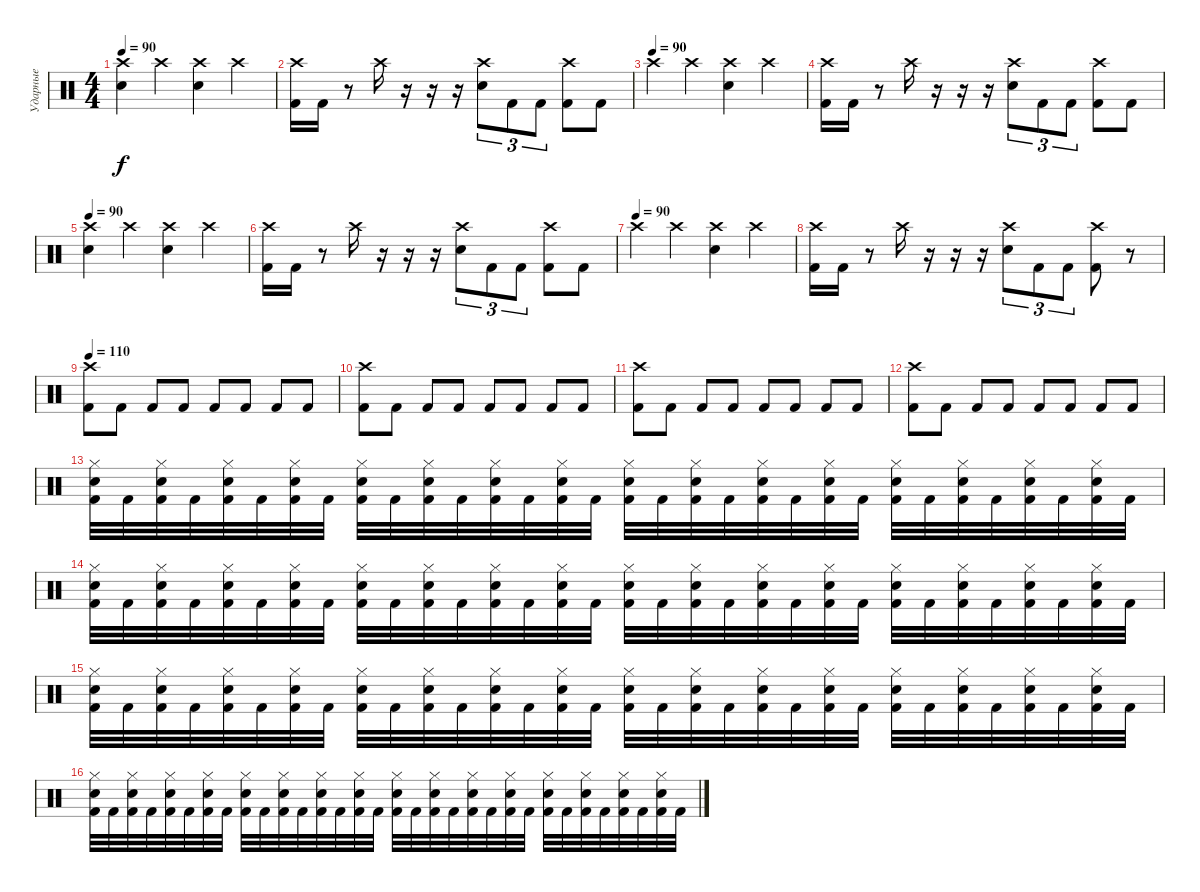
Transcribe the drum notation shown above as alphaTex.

\track ("Ударные" "Ударные") {instrument percussion}
\staff {score}
\articulation defaults
\ts (4 4)
\tempo 90
\clef neutral
\ks c
("Crash high (hit)" "Electric Snare (hit)").4{dy f} "Crash high (hit)".4 ("Crash high (hit)" "Electric Snare (hit)").4 "Crash high (hit)".4 |
("Kick (hit) 2" "Crash high (hit)").16 "Kick (hit) 2".16 r.8 "Crash high (hit)".16 r.16 r.16 r.16 ("Electric Snare (hit)" "Crash high (hit)").8{tu (3 2)} "Kick (hit) 2".8{tu (3 2)} "Kick (hit) 2".8{tu (3 2)} ("Kick (hit) 2" "Crash high (hit)").8 "Kick (hit) 2".8 |
\tempo (90)
"Crash high (hit)".4 "Crash high (hit)".4 ("Crash high (hit)" "Electric Snare (hit)").4 "Crash high (hit)".4 |
("Kick (hit) 2" "Crash high (hit)").16 "Kick (hit) 2".16 r.8 "Crash high (hit)".16 r.16 r.16 r.16 ("Electric Snare (hit)" "Crash high (hit)").8{tu (3 2)} "Kick (hit) 2".8{tu (3 2)} "Kick (hit) 2".8{tu (3 2)} ("Kick (hit) 2" "Crash high (hit)").8 "Kick (hit) 2".8 |
\tempo 90
("Crash high (hit)" "Electric Snare (hit)").4 "Crash high (hit)".4 ("Crash high (hit)" "Electric Snare (hit)").4 "Crash high (hit)".4 |
("Kick (hit) 2" "Crash high (hit)").16 "Kick (hit) 2".16 r.8 "Crash high (hit)".16 r.16 r.16 r.16 ("Electric Snare (hit)" "Crash high (hit)").8{tu (3 2)} "Kick (hit) 2".8{tu (3 2)} "Kick (hit) 2".8{tu (3 2)} ("Kick (hit) 2" "Crash high (hit)").8 "Kick (hit) 2".8 |
\tempo (90)
"Crash high (hit)".4 "Crash high (hit)".4 ("Crash high (hit)" "Electric Snare (hit)").4 "Crash high (hit)".4 |
("Kick (hit) 2" "Crash high (hit)").16 "Kick (hit) 2".16 r.8 "Crash high (hit)".16 r.16 r.16 r.16 ("Electric Snare (hit)" "Crash high (hit)").8{tu (3 2)} "Kick (hit) 2".8{tu (3 2)} "Kick (hit) 2".8{tu (3 2)} ("Kick (hit) 2" "Crash high (hit)").8 r.8 |
\tempo 110
("Crash high (hit)" "Kick (hit) 2").8 "Kick (hit) 2".8 "Kick (hit) 2".8 "Kick (hit) 2".8 "Kick (hit) 2".8 "Kick (hit) 2".8 "Kick (hit) 2".8 "Kick (hit) 2".8 |
("Crash high (hit)" "Kick (hit) 2").8 "Kick (hit) 2".8 "Kick (hit) 2".8 "Kick (hit) 2".8 "Kick (hit) 2".8 "Kick (hit) 2".8 "Kick (hit) 2".8 "Kick (hit) 2".8 |
("Crash high (hit)" "Kick (hit) 2").8 "Kick (hit) 2".8 "Kick (hit) 2".8 "Kick (hit) 2".8 "Kick (hit) 2".8 "Kick (hit) 2".8 "Kick (hit) 2".8 "Kick (hit) 2".8 |
("Crash high (hit)" "Kick (hit) 2").8 "Kick (hit) 2".8 "Kick (hit) 2".8 "Kick (hit) 2".8 "Kick (hit) 2".8 "Kick (hit) 2".8 "Kick (hit) 2".8 "Kick (hit) 2".8 |
("Kick (hit) 2" "Hi-Hat (closed)" "Electric Snare (hit)").32 "Kick (hit) 2".32 ("Kick (hit) 2" "Hi-Hat (closed)" "Electric Snare (hit)").32 "Kick (hit) 2".32 ("Kick (hit) 2" "Hi-Hat (closed)" "Electric Snare (hit)").32 "Kick (hit) 2".32 ("Kick (hit) 2" "Hi-Hat (closed)" "Electric Snare (hit)").32 "Kick (hit) 2".32 ("Kick (hit) 2" "Hi-Hat (closed)" "Electric Snare (hit)").32 "Kick (hit) 2".32 ("Kick (hit) 2" "Hi-Hat (closed)" "Electric Snare (hit)").32 "Kick (hit) 2".32 ("Kick (hit) 2" "Hi-Hat (closed)" "Electric Snare (hit)").32 "Kick (hit) 2".32 ("Kick (hit) 2" "Hi-Hat (closed)" "Electric Snare (hit)").32 "Kick (hit) 2".32 ("Kick (hit) 2" "Hi-Hat (closed)" "Electric Snare (hit)").32 "Kick (hit) 2".32 ("Kick (hit) 2" "Hi-Hat (closed)" "Electric Snare (hit)").32 "Kick (hit) 2".32 ("Kick (hit) 2" "Hi-Hat (closed)" "Electric Snare (hit)").32 "Kick (hit) 2".32 ("Kick (hit) 2" "Hi-Hat (closed)" "Electric Snare (hit)").32 "Kick (hit) 2".32 ("Kick (hit) 2" "Hi-Hat (closed)" "Electric Snare (hit)").32 "Kick (hit) 2".32 ("Kick (hit) 2" "Hi-Hat (closed)" "Electric Snare (hit)").32 "Kick (hit) 2".32 ("Kick (hit) 2" "Hi-Hat (closed)" "Electric Snare (hit)").32 "Kick (hit) 2".32 ("Kick (hit) 2" "Hi-Hat (closed)" "Electric Snare (hit)").32 "Kick (hit) 2".32 |
("Kick (hit) 2" "Hi-Hat (closed)" "Electric Snare (hit)").32 "Kick (hit) 2".32 ("Kick (hit) 2" "Hi-Hat (closed)" "Electric Snare (hit)").32 "Kick (hit) 2".32 ("Kick (hit) 2" "Hi-Hat (closed)" "Electric Snare (hit)").32 "Kick (hit) 2".32 ("Kick (hit) 2" "Hi-Hat (closed)" "Electric Snare (hit)").32 "Kick (hit) 2".32 ("Kick (hit) 2" "Hi-Hat (closed)" "Electric Snare (hit)").32 "Kick (hit) 2".32 ("Kick (hit) 2" "Hi-Hat (closed)" "Electric Snare (hit)").32 "Kick (hit) 2".32 ("Kick (hit) 2" "Hi-Hat (closed)" "Electric Snare (hit)").32 "Kick (hit) 2".32 ("Kick (hit) 2" "Hi-Hat (closed)" "Electric Snare (hit)").32 "Kick (hit) 2".32 ("Kick (hit) 2" "Hi-Hat (closed)" "Electric Snare (hit)").32 "Kick (hit) 2".32 ("Kick (hit) 2" "Hi-Hat (closed)" "Electric Snare (hit)").32 "Kick (hit) 2".32 ("Kick (hit) 2" "Hi-Hat (closed)" "Electric Snare (hit)").32 "Kick (hit) 2".32 ("Kick (hit) 2" "Hi-Hat (closed)" "Electric Snare (hit)").32 "Kick (hit) 2".32 ("Kick (hit) 2" "Hi-Hat (closed)" "Electric Snare (hit)").32 "Kick (hit) 2".32 ("Kick (hit) 2" "Hi-Hat (closed)" "Electric Snare (hit)").32 "Kick (hit) 2".32 ("Kick (hit) 2" "Hi-Hat (closed)" "Electric Snare (hit)").32 "Kick (hit) 2".32 ("Kick (hit) 2" "Hi-Hat (closed)" "Electric Snare (hit)").32 "Kick (hit) 2".32 |
("Kick (hit) 2" "Hi-Hat (closed)" "Electric Snare (hit)").32 "Kick (hit) 2".32 ("Kick (hit) 2" "Hi-Hat (closed)" "Electric Snare (hit)").32 "Kick (hit) 2".32 ("Kick (hit) 2" "Hi-Hat (closed)" "Electric Snare (hit)").32 "Kick (hit) 2".32 ("Kick (hit) 2" "Hi-Hat (closed)" "Electric Snare (hit)").32 "Kick (hit) 2".32 ("Kick (hit) 2" "Hi-Hat (closed)" "Electric Snare (hit)").32 "Kick (hit) 2".32 ("Kick (hit) 2" "Hi-Hat (closed)" "Electric Snare (hit)").32 "Kick (hit) 2".32 ("Kick (hit) 2" "Hi-Hat (closed)" "Electric Snare (hit)").32 "Kick (hit) 2".32 ("Kick (hit) 2" "Hi-Hat (closed)" "Electric Snare (hit)").32 "Kick (hit) 2".32 ("Kick (hit) 2" "Hi-Hat (closed)" "Electric Snare (hit)").32 "Kick (hit) 2".32 ("Kick (hit) 2" "Hi-Hat (closed)" "Electric Snare (hit)").32 "Kick (hit) 2".32 ("Kick (hit) 2" "Hi-Hat (closed)" "Electric Snare (hit)").32 "Kick (hit) 2".32 ("Kick (hit) 2" "Hi-Hat (closed)" "Electric Snare (hit)").32 "Kick (hit) 2".32 ("Kick (hit) 2" "Hi-Hat (closed)" "Electric Snare (hit)").32 "Kick (hit) 2".32 ("Kick (hit) 2" "Hi-Hat (closed)" "Electric Snare (hit)").32 "Kick (hit) 2".32 ("Kick (hit) 2" "Hi-Hat (closed)" "Electric Snare (hit)").32 "Kick (hit) 2".32 ("Kick (hit) 2" "Hi-Hat (closed)" "Electric Snare (hit)").32 "Kick (hit) 2".32 |
("Kick (hit) 2" "Hi-Hat (closed)" "Electric Snare (hit)").32 "Kick (hit) 2".32 ("Kick (hit) 2" "Hi-Hat (closed)" "Electric Snare (hit)").32 "Kick (hit) 2".32 ("Kick (hit) 2" "Hi-Hat (closed)" "Electric Snare (hit)").32 "Kick (hit) 2".32 ("Kick (hit) 2" "Hi-Hat (closed)" "Electric Snare (hit)").32 "Kick (hit) 2".32 ("Kick (hit) 2" "Hi-Hat (closed)" "Electric Snare (hit)").32 "Kick (hit) 2".32 ("Kick (hit) 2" "Hi-Hat (closed)" "Electric Snare (hit)").32 "Kick (hit) 2".32 ("Kick (hit) 2" "Hi-Hat (closed)" "Electric Snare (hit)").32 "Kick (hit) 2".32 ("Kick (hit) 2" "Hi-Hat (closed)" "Electric Snare (hit)").32 "Kick (hit) 2".32 ("Kick (hit) 2" "Hi-Hat (closed)" "Electric Snare (hit)").32 "Kick (hit) 2".32 ("Kick (hit) 2" "Hi-Hat (closed)" "Electric Snare (hit)").32 "Kick (hit) 2".32 ("Kick (hit) 2" "Hi-Hat (closed)" "Electric Snare (hit)").32 "Kick (hit) 2".32 ("Kick (hit) 2" "Hi-Hat (closed)" "Electric Snare (hit)").32 "Kick (hit) 2".32 ("Kick (hit) 2" "Hi-Hat (closed)" "Electric Snare (hit)").32 "Kick (hit) 2".32 ("Kick (hit) 2" "Hi-Hat (closed)" "Electric Snare (hit)").32 "Kick (hit) 2".32 ("Kick (hit) 2" "Hi-Hat (closed)" "Electric Snare (hit)").32 "Kick (hit) 2".32 ("Kick (hit) 2" "Hi-Hat (closed)" "Electric Snare (hit)").32 "Kick (hit) 2".32
